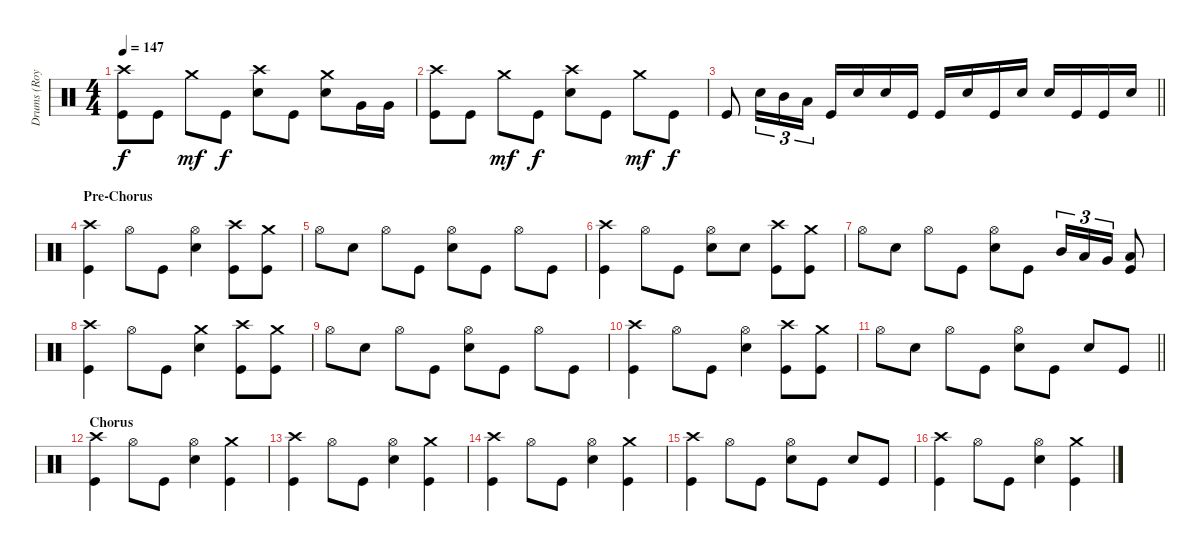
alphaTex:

\track ("Drums (Roy)" "Drums (Roy") {instrument percussion}
\staff {score}
\articulation defaults
\ts (4 4)
\tempo 147
\clef neutral
\ks c
("Crash high (hit)" "Kick (hit)").8{dy f} "Kick (hit)".8 "Crash medium (hit)".8{dy mf} "Kick (hit)".8{dy f} ("Crash high (hit)" "Snare (hit) 2").8 "Kick (hit)".8 ("Crash medium (hit)" "Snare (hit) 2").8 "Very Low Tom (hit)".16 "Very Low Tom (hit)".16 |
("Crash high (hit)" "Kick (hit)").8 "Kick (hit)".8 "Crash medium (hit)".8{dy mf} "Kick (hit)".8{dy f} ("Crash high (hit)" "Snare (hit) 2").8 "Kick (hit)".8 "Crash medium (hit)".8{dy mf} "Kick (hit)".8{dy f} |
\barLineRight lightlight "Kick (hit)".8 "Snare (hit) 2".16{tu (3 2)} "Mid Tom (hit)".16{tu (3 2)} "Low Tom (hit)".16{tu (3 2)} "Kick (hit)".16 "Snare (hit) 2".16 "Snare (hit) 2".16 "Kick (hit)".16 "Kick (hit)".16 "Snare (hit) 2".16 "Kick (hit)".16 "Snare (hit) 2".16 "Snare (hit) 2".16 "Kick (hit)".16 "Kick (hit)".16 "Snare (hit) 2".16
|
\section ("" "Pre-Chorus")
("Crash high (hit)" "Kick (hit)").4 "Hi-Hat (open)".8 "Kick (hit)".8 ("Hi-Hat (open)" "Snare (hit) 2").4 ("Crash high (hit)" "Kick (hit)").8 ("Crash medium (hit)" "Kick (hit)").8 |
"Hi-Hat (open)".8 "Snare (hit) 2".8 "Hi-Hat (open)".8 "Kick (hit)".8 ("Hi-Hat (open)" "Snare (hit) 2").8 "Kick (hit)".8 "Hi-Hat (open)".8 "Kick (hit)".8 |
("Crash high (hit)" "Kick (hit)").4 "Hi-Hat (open)".8 "Kick (hit)".8 ("Hi-Hat (open)" "Snare (hit) 2").8 "Snare (hit) 2".8 ("Crash high (hit)" "Kick (hit)").8 ("Crash medium (hit)" "Kick (hit)").8 |
"Hi-Hat (open)".8 "Snare (hit) 2".8 "Hi-Hat (open)".8 "Kick (hit)".8 ("Hi-Hat (open)" "Snare (hit) 2").8 "Kick (hit)".8 "Mid Tom (hit)".16{tu (3 2)} "Low Tom (hit)".16{tu (3 2)} "Very Low Tom (hit)".16{tu (3 2)} ("Low Floor Tom (hit)" "Kick (hit)").8 |
("Crash high (hit)" "Kick (hit)").4 "Hi-Hat (open)".8 "Kick (hit)".8 ("Crash medium (hit)" "Snare (hit) 2").4 ("Crash high (hit)" "Kick (hit)").8 ("Crash medium (hit)" "Kick (hit)").8 |
"Hi-Hat (open)".8 "Snare (hit) 2".8 "Hi-Hat (open)".8 "Kick (hit)".8 ("Hi-Hat (open)" "Snare (hit) 2").8 "Kick (hit)".8 "Hi-Hat (open)".8 "Kick (hit)".8 |
("Crash high (hit)" "Kick (hit)").4 "Hi-Hat (open)".8 "Kick (hit)".8 ("Hi-Hat (open)" "Snare (hit) 2").4 ("Crash high (hit)" "Kick (hit)").8 ("Crash medium (hit)" "Kick (hit)").8 |
\barLineRight lightlight "Hi-Hat (open)".8 "Snare (hit) 2".8 "Hi-Hat (open)".8 "Kick (hit)".8
("Hi-Hat (open)" "Snare (hit) 2").8 "Kick (hit)".8 "Snare (hit) 2".8 "Kick (hit)".8 |
\section ("" "Chorus")
("Crash high (hit)" "Kick (hit)").4 "Hi-Hat (open)".8 "Kick (hit)".8 ("Hi-Hat (open)" "Snare (hit) 2").4 ("Crash medium (hit)" "Kick (hit)").4 |
("Crash high (hit)" "Kick (hit)").4 "Hi-Hat (open)".8 "Kick (hit)".8 ("Hi-Hat (open)" "Snare (hit) 2").4 ("Crash medium (hit)" "Kick (hit)").4 |
("Crash high (hit)" "Kick (hit)").4 "Hi-Hat (open)".8 "Kick (hit)".8 ("Hi-Hat (open)" "Snare (hit) 2").4 ("Crash medium (hit)" "Kick (hit)").4 |
("Crash high (hit)" "Kick (hit)").4 "Hi-Hat (open)".8 "Kick (hit)".8 ("Hi-Hat (open)" "Snare (hit) 2").8 "Kick (hit)".8 "Snare (hit) 2".8 "Kick (hit)".8 |
("Crash high (hit)" "Kick (hit)").4 "Hi-Hat (open)".8 "Kick (hit)".8 ("Hi-Hat (open)" "Snare (hit) 2").4 ("Crash medium (hit)" "Kick (hit)").4
